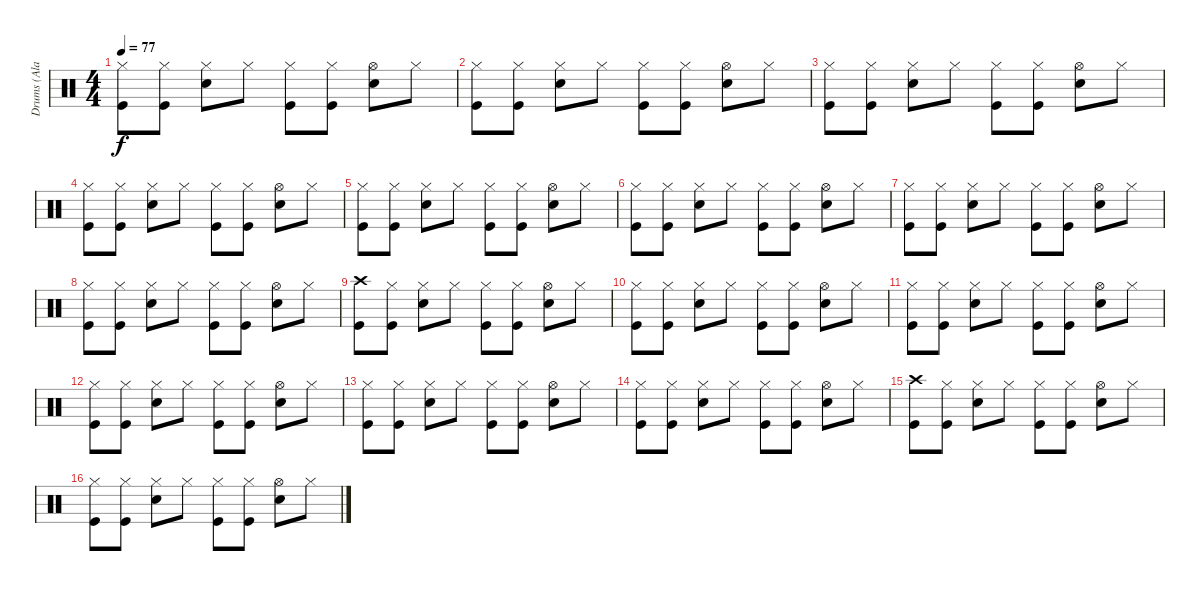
\track ("Drums (Alan White)" "Drums (Ala") {instrument percussion}
\staff {score}
\articulation defaults
\ts (4 4)
\tempo 77
\clef neutral
\ks c
("Hi-Hat (closed)" "Kick (hit)").8{dy f} ("Hi-Hat (closed)" "Kick (hit)").8 ("Hi-Hat (closed)" "Snare (hit) 2").8 "Hi-Hat (closed)".8 ("Hi-Hat (closed)" "Kick (hit)").8 ("Hi-Hat (closed)" "Kick (hit)").8 ("Hi-Hat (open)" "Snare (hit) 2").8 "Hi-Hat (closed)".8 |
("Hi-Hat (closed)" "Kick (hit)").8 ("Hi-Hat (closed)" "Kick (hit)").8 ("Hi-Hat (closed)" "Snare (hit) 2").8 "Hi-Hat (closed)".8 ("Hi-Hat (closed)" "Kick (hit)").8 ("Hi-Hat (closed)" "Kick (hit)").8 ("Hi-Hat (open)" "Snare (hit) 2").8 "Hi-Hat (closed)".8 |
("Hi-Hat (closed)" "Kick (hit)").8 ("Hi-Hat (closed)" "Kick (hit)").8 ("Hi-Hat (closed)" "Snare (hit) 2").8 "Hi-Hat (closed)".8 ("Hi-Hat (closed)" "Kick (hit)").8 ("Hi-Hat (closed)" "Kick (hit)").8 ("Hi-Hat (open)" "Snare (hit) 2").8 "Hi-Hat (closed)".8 |
("Hi-Hat (closed)" "Kick (hit)").8 ("Hi-Hat (closed)" "Kick (hit)").8 ("Hi-Hat (closed)" "Snare (hit) 2").8 "Hi-Hat (closed)".8 ("Hi-Hat (closed)" "Kick (hit)").8 ("Hi-Hat (closed)" "Kick (hit)").8 ("Hi-Hat (open)" "Snare (hit) 2").8 "Hi-Hat (closed)".8 |
("Hi-Hat (closed)" "Kick (hit)").8 ("Hi-Hat (closed)" "Kick (hit)").8 ("Hi-Hat (closed)" "Snare (hit) 2").8 "Hi-Hat (closed)".8 ("Hi-Hat (closed)" "Kick (hit)").8 ("Hi-Hat (closed)" "Kick (hit)").8 ("Hi-Hat (open)" "Snare (hit) 2").8 "Hi-Hat (closed)".8 |
("Hi-Hat (closed)" "Kick (hit)").8 ("Hi-Hat (closed)" "Kick (hit)").8 ("Hi-Hat (closed)" "Snare (hit) 2").8 "Hi-Hat (closed)".8 ("Hi-Hat (closed)" "Kick (hit)").8 ("Hi-Hat (closed)" "Kick (hit)").8 ("Hi-Hat (open)" "Snare (hit) 2").8 "Hi-Hat (closed)".8 |
("Hi-Hat (closed)" "Kick (hit)").8 ("Hi-Hat (closed)" "Kick (hit)").8 ("Hi-Hat (closed)" "Snare (hit) 2").8 "Hi-Hat (closed)".8 ("Hi-Hat (closed)" "Kick (hit)").8 ("Hi-Hat (closed)" "Kick (hit)").8 ("Hi-Hat (open)" "Snare (hit) 2").8 "Hi-Hat (closed)".8 |
("Hi-Hat (closed)" "Kick (hit)").8 ("Hi-Hat (closed)" "Kick (hit)").8 ("Hi-Hat (closed)" "Snare (hit) 2").8 "Hi-Hat (closed)".8 ("Hi-Hat (closed)" "Kick (hit)").8 ("Hi-Hat (closed)" "Kick (hit)").8 ("Hi-Hat (open)" "Snare (hit) 2").8 "Hi-Hat (closed)".8 |
("Crash high (hit)" "Kick (hit)").8 ("Hi-Hat (closed)" "Kick (hit)").8 ("Hi-Hat (closed)" "Snare (hit) 2").8 "Hi-Hat (closed)".8 ("Hi-Hat (closed)" "Kick (hit)").8 ("Hi-Hat (closed)" "Kick (hit)").8 ("Hi-Hat (open)" "Snare (hit) 2").8 "Hi-Hat (closed)".8 |
("Hi-Hat (closed)" "Kick (hit)").8 ("Hi-Hat (closed)" "Kick (hit)").8 ("Hi-Hat (closed)" "Snare (hit) 2").8 "Hi-Hat (closed)".8 ("Hi-Hat (closed)" "Kick (hit)").8 ("Hi-Hat (closed)" "Kick (hit)").8 ("Hi-Hat (open)" "Snare (hit) 2").8 "Hi-Hat (closed)".8 |
("Hi-Hat (closed)" "Kick (hit)").8 ("Hi-Hat (closed)" "Kick (hit)").8 ("Hi-Hat (closed)" "Snare (hit) 2").8 "Hi-Hat (closed)".8 ("Hi-Hat (closed)" "Kick (hit)").8 ("Hi-Hat (closed)" "Kick (hit)").8 ("Hi-Hat (open)" "Snare (hit) 2").8 "Hi-Hat (closed)".8 |
("Hi-Hat (closed)" "Kick (hit)").8 ("Hi-Hat (closed)" "Kick (hit)").8 ("Hi-Hat (closed)" "Snare (hit) 2").8 "Hi-Hat (closed)".8 ("Hi-Hat (closed)" "Kick (hit)").8 ("Hi-Hat (closed)" "Kick (hit)").8 ("Hi-Hat (open)" "Snare (hit) 2").8 "Hi-Hat (closed)".8 |
("Hi-Hat (closed)" "Kick (hit)").8 ("Hi-Hat (closed)" "Kick (hit)").8 ("Hi-Hat (closed)" "Snare (hit) 2").8 "Hi-Hat (closed)".8 ("Hi-Hat (closed)" "Kick (hit)").8 ("Hi-Hat (closed)" "Kick (hit)").8 ("Hi-Hat (open)" "Snare (hit) 2").8 "Hi-Hat (closed)".8 |
("Hi-Hat (closed)" "Kick (hit)").8 ("Hi-Hat (closed)" "Kick (hit)").8 ("Hi-Hat (closed)" "Snare (hit) 2").8 "Hi-Hat (closed)".8 ("Hi-Hat (closed)" "Kick (hit)").8 ("Hi-Hat (closed)" "Kick (hit)").8 ("Hi-Hat (open)" "Snare (hit) 2").8 "Hi-Hat (closed)".8 |
("Crash high (hit)" "Kick (hit)").8 ("Hi-Hat (closed)" "Kick (hit)").8 ("Hi-Hat (closed)" "Snare (hit) 2").8 "Hi-Hat (closed)".8 ("Hi-Hat (closed)" "Kick (hit)").8 ("Hi-Hat (closed)" "Kick (hit)").8 ("Hi-Hat (open)" "Snare (hit) 2").8 "Hi-Hat (closed)".8 |
("Hi-Hat (closed)" "Kick (hit)").8 ("Hi-Hat (closed)" "Kick (hit)").8 ("Hi-Hat (closed)" "Snare (hit) 2").8 "Hi-Hat (closed)".8 ("Hi-Hat (closed)" "Kick (hit)").8 ("Hi-Hat (closed)" "Kick (hit)").8 ("Hi-Hat (open)" "Snare (hit) 2").8 "Hi-Hat (closed)".8
